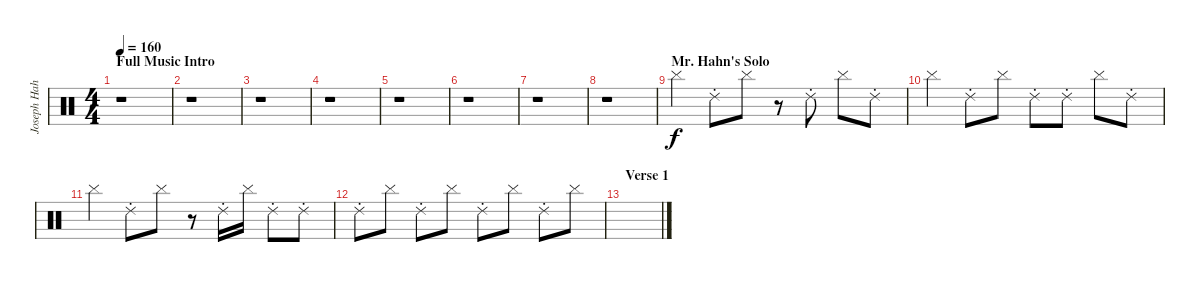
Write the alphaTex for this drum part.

\track ("Joseph Hahn (Sampler 3)" "Joseph Hah") {instrument percussion}
\staff {score}
\articulation defaults
\ts (4 4)
\section ("" "Full Music Intro")
\tempo 160
\clef neutral
\ks c
r.1{dy f} |
r.1 |
r.1 |
r.1 |
r.1 |
r.1 |
r.1 |
r.1 |
\section ("" "Mr. Hahn's Solo")
"Cymbal (hit)".4 "Ride (choke) 2".8 "Cymbal (hit)".8 r.8 "Ride (choke) 2".8 "Cymbal (hit)".8 "Ride (choke) 2".8 |
"Cymbal (hit)".4 "Ride (choke) 2".8 "Cymbal (hit)".8 "Ride (choke) 2".8 "Ride (choke) 2".8 "Cymbal (hit)".8 "Ride (choke) 2".8 |
"Cymbal (hit)".4 "Ride (choke) 2".8 "Cymbal (hit)".8 r.8 "Ride (choke) 2".16 "Cymbal (hit)".16 "Ride (choke) 2".8 "Ride (choke) 2".8 |
"Ride (choke) 2".8 "Cymbal (hit)".8 "Ride (choke) 2".8 "Cymbal (hit)".8 "Ride (choke) 2".8 "Cymbal (hit)".8 "Ride (choke) 2".8 "Cymbal (hit)".8 |
\section ("" "Verse 1")
